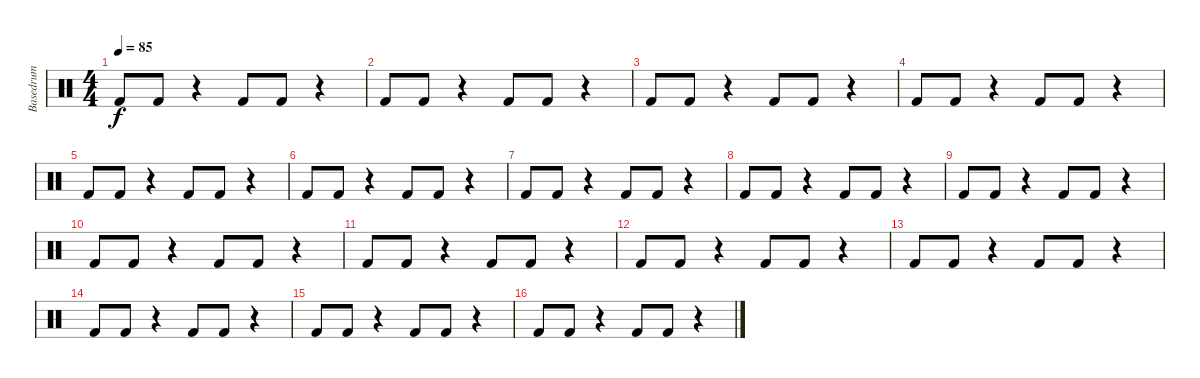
\track ("Basedrum" "Basedrum") {instrument percussion}
\staff {score}
\articulation defaults
\ts (4 4)
\tempo 85
\clef neutral
\ks c "Kick (hit) 2".8{dy f} "Kick (hit) 2".8
r.4 "Kick (hit) 2".8 "Kick (hit) 2".8 r.4 |
"Kick (hit) 2".8 "Kick (hit) 2".8 r.4 "Kick (hit) 2".8 "Kick (hit) 2".8 r.4 |
"Kick (hit) 2".8 "Kick (hit) 2".8 r.4 "Kick (hit) 2".8 "Kick (hit) 2".8 r.4 |
"Kick (hit) 2".8 "Kick (hit) 2".8 r.4 "Kick (hit) 2".8 "Kick (hit) 2".8 r.4 |
"Kick (hit) 2".8 "Kick (hit) 2".8 r.4 "Kick (hit) 2".8 "Kick (hit) 2".8 r.4 |
"Kick (hit) 2".8 "Kick (hit) 2".8 r.4 "Kick (hit) 2".8 "Kick (hit) 2".8 r.4 |
"Kick (hit) 2".8 "Kick (hit) 2".8 r.4 "Kick (hit) 2".8 "Kick (hit) 2".8 r.4 |
"Kick (hit) 2".8 "Kick (hit) 2".8 r.4 "Kick (hit) 2".8 "Kick (hit) 2".8 r.4 |
"Kick (hit) 2".8 "Kick (hit) 2".8 r.4 "Kick (hit) 2".8 "Kick (hit) 2".8 r.4 |
"Kick (hit) 2".8 "Kick (hit) 2".8 r.4 "Kick (hit) 2".8 "Kick (hit) 2".8 r.4 |
"Kick (hit) 2".8 "Kick (hit) 2".8 r.4 "Kick (hit) 2".8 "Kick (hit) 2".8 r.4 |
"Kick (hit) 2".8 "Kick (hit) 2".8 r.4 "Kick (hit) 2".8 "Kick (hit) 2".8 r.4 |
"Kick (hit) 2".8 "Kick (hit) 2".8 r.4 "Kick (hit) 2".8 "Kick (hit) 2".8 r.4 |
"Kick (hit) 2".8 "Kick (hit) 2".8 r.4 "Kick (hit) 2".8 "Kick (hit) 2".8 r.4 |
"Kick (hit) 2".8 "Kick (hit) 2".8 r.4 "Kick (hit) 2".8 "Kick (hit) 2".8 r.4 |
"Kick (hit) 2".8 "Kick (hit) 2".8 r.4 "Kick (hit) 2".8 "Kick (hit) 2".8 r.4
